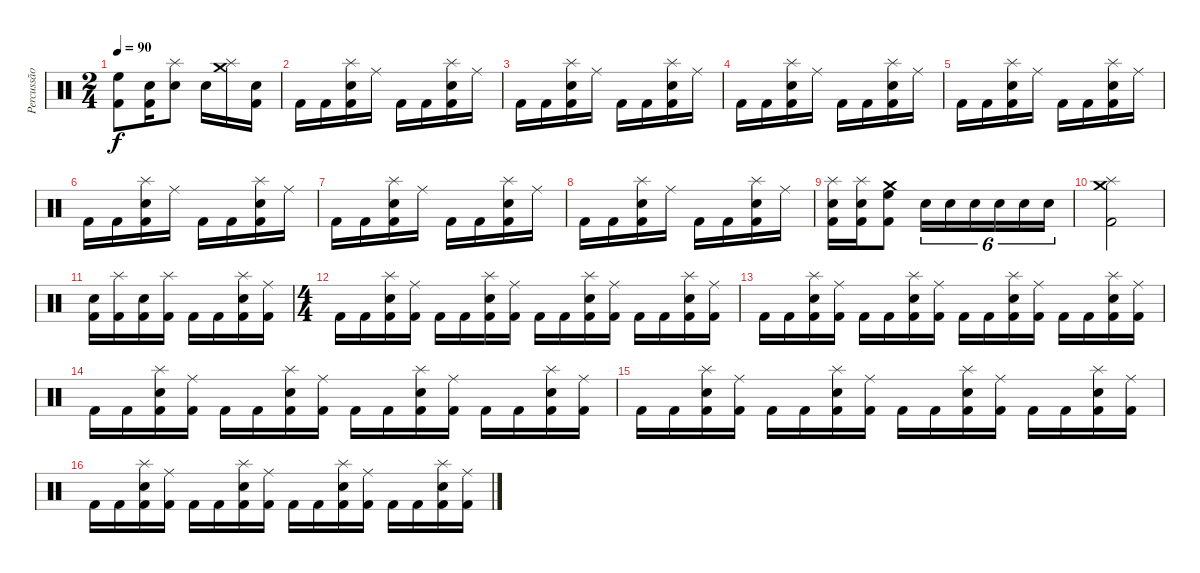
\track ("Percussão" "Percussão") {instrument percussion}
\staff {score}
\articulation defaults
\ts (2 4)
\tempo 90
\clef neutral
\ks c
("High Floor Tom (hit)" "Kick (hit) 2").8{dy f} ("Metronome (bell)" "Kick (hit) 2").16 ("Metronome (bell)" "Splash (hit)").8 "Metronome (bell)".16 ("Splash (hit)" "Crash medium (hit)").16 ("Metronome (bell)" "Kick (hit) 2").16 |
"Kick (hit) 2".16 "Kick (hit) 2".16 ("Splash (hit)" "Metronome (bell)" "Kick (hit) 2").16 "Ride (middle)".16 "Kick (hit) 2".16 "Kick (hit) 2".16 ("Splash (hit)" "Metronome (bell)" "Kick (hit) 2").16 "Ride (middle)".16 |
"Kick (hit) 2".16 "Kick (hit) 2".16 ("Splash (hit)" "Metronome (bell)" "Kick (hit) 2").16 "Ride (middle)".16 "Kick (hit) 2".16 "Kick (hit) 2".16 ("Splash (hit)" "Metronome (bell)" "Kick (hit) 2").16 "Ride (middle)".16 |
"Kick (hit) 2".16 "Kick (hit) 2".16 ("Splash (hit)" "Metronome (bell)" "Kick (hit) 2").16 "Ride (middle)".16 "Kick (hit) 2".16 "Kick (hit) 2".16 ("Splash (hit)" "Metronome (bell)" "Kick (hit) 2").16 "Ride (middle)".16 |
"Kick (hit) 2".16 "Kick (hit) 2".16 ("Splash (hit)" "Metronome (bell)" "Kick (hit) 2").16 "Ride (middle)".16 "Kick (hit) 2".16 "Kick (hit) 2".16 ("Splash (hit)" "Metronome (bell)" "Kick (hit) 2").16 "Ride (middle)".16 |
"Kick (hit) 2".16 "Kick (hit) 2".16 ("Splash (hit)" "Metronome (bell)" "Kick (hit) 2").16 "Ride (middle)".16 "Kick (hit) 2".16 "Kick (hit) 2".16 ("Splash (hit)" "Metronome (bell)" "Kick (hit) 2").16 "Ride (middle)".16 |
"Kick (hit) 2".16 "Kick (hit) 2".16 ("Splash (hit)" "Metronome (bell)" "Kick (hit) 2").16 "Ride (middle)".16 "Kick (hit) 2".16 "Kick (hit) 2".16 ("Splash (hit)" "Metronome (bell)" "Kick (hit) 2").16 "Ride (middle)".16 |
"Kick (hit) 2".16 "Kick (hit) 2".16 ("Splash (hit)" "Metronome (bell)" "Kick (hit) 2").16 "Ride (middle)".16 "Kick (hit) 2".16 "Kick (hit) 2".16 ("Splash (hit)" "Metronome (bell)" "Kick (hit) 2").16 "Ride (middle)".16 |
("Splash (hit)" "Metronome (bell)" "Kick (hit) 2").16 ("Splash (hit)" "Metronome (bell)" "Kick (hit) 2").16 ("Crash medium (hit)" "High Floor Tom (hit)" "Kick (hit) 2").8 "Metronome (bell)".16{tu (6 4)} "Metronome (bell)".16{tu (6 4)} "Metronome (bell)".16{tu (6 4)} "Metronome (bell)".16{tu (6 4)} "Metronome (bell)".16{tu (6 4)} "Metronome (bell)".16{tu (6 4)} |
("Crash medium (hit)" "Splash (hit)" "Kick (hit) 2").2 |
("Metronome (bell)" "Kick (hit) 2").16 ("Splash (hit)" "Kick (hit) 2").16 ("Metronome (bell)" "Kick (hit) 2").16 ("Splash (hit)" "Kick (hit) 2").16 "Kick (hit) 2".16 "Kick (hit) 2".16 ("Splash (hit)" "Metronome (bell)" "Kick (hit) 2").16 ("Ride (middle)" "Kick (hit) 2").16 |
\ts (4 4)
"Kick (hit) 2".16 "Kick (hit) 2".16 ("Splash (hit)" "Metronome (bell)" "Kick (hit) 2").16 ("Ride (middle)" "Kick (hit) 2").16 "Kick (hit) 2".16 "Kick (hit) 2".16 ("Splash (hit)" "Metronome (bell)" "Kick (hit) 2").16 ("Ride (middle)" "Kick (hit) 2").16 "Kick (hit) 2".16 "Kick (hit) 2".16 ("Splash (hit)" "Metronome (bell)" "Kick (hit) 2").16 ("Ride (middle)" "Kick (hit) 2").16 "Kick (hit) 2".16 "Kick (hit) 2".16 ("Splash (hit)" "Metronome (bell)" "Kick (hit) 2").16 ("Ride (middle)" "Kick (hit) 2").16 |
"Kick (hit) 2".16 "Kick (hit) 2".16 ("Splash (hit)" "Metronome (bell)" "Kick (hit) 2").16 ("Ride (middle)" "Kick (hit) 2").16 "Kick (hit) 2".16 "Kick (hit) 2".16 ("Splash (hit)" "Metronome (bell)" "Kick (hit) 2").16 ("Ride (middle)" "Kick (hit) 2").16 "Kick (hit) 2".16 "Kick (hit) 2".16 ("Splash (hit)" "Metronome (bell)" "Kick (hit) 2").16 ("Ride (middle)" "Kick (hit) 2").16 "Kick (hit) 2".16 "Kick (hit) 2".16 ("Splash (hit)" "Metronome (bell)" "Kick (hit) 2").16 ("Ride (middle)" "Kick (hit) 2").16 |
"Kick (hit) 2".16 "Kick (hit) 2".16 ("Splash (hit)" "Metronome (bell)" "Kick (hit) 2").16 ("Ride (middle)" "Kick (hit) 2").16 "Kick (hit) 2".16 "Kick (hit) 2".16 ("Splash (hit)" "Metronome (bell)" "Kick (hit) 2").16 ("Ride (middle)" "Kick (hit) 2").16 "Kick (hit) 2".16 "Kick (hit) 2".16 ("Splash (hit)" "Metronome (bell)" "Kick (hit) 2").16 ("Ride (middle)" "Kick (hit) 2").16 "Kick (hit) 2".16 "Kick (hit) 2".16 ("Splash (hit)" "Metronome (bell)" "Kick (hit) 2").16 ("Ride (middle)" "Kick (hit) 2").16 |
"Kick (hit) 2".16 "Kick (hit) 2".16 ("Splash (hit)" "Metronome (bell)" "Kick (hit) 2").16 ("Ride (middle)" "Kick (hit) 2").16 "Kick (hit) 2".16 "Kick (hit) 2".16 ("Splash (hit)" "Metronome (bell)" "Kick (hit) 2").16 ("Ride (middle)" "Kick (hit) 2").16 "Kick (hit) 2".16 "Kick (hit) 2".16 ("Splash (hit)" "Metronome (bell)" "Kick (hit) 2").16 ("Ride (middle)" "Kick (hit) 2").16 "Kick (hit) 2".16 "Kick (hit) 2".16 ("Splash (hit)" "Metronome (bell)" "Kick (hit) 2").16 ("Ride (middle)" "Kick (hit) 2").16 |
"Kick (hit) 2".16 "Kick (hit) 2".16 ("Splash (hit)" "Metronome (bell)" "Kick (hit) 2").16 ("Ride (middle)" "Kick (hit) 2").16 "Kick (hit) 2".16 "Kick (hit) 2".16 ("Splash (hit)" "Metronome (bell)" "Kick (hit) 2").16 ("Ride (middle)" "Kick (hit) 2").16 "Kick (hit) 2".16 "Kick (hit) 2".16 ("Splash (hit)" "Metronome (bell)" "Kick (hit) 2").16 ("Ride (middle)" "Kick (hit) 2").16 "Kick (hit) 2".16 "Kick (hit) 2".16 ("Splash (hit)" "Metronome (bell)" "Kick (hit) 2").16 ("Ride (middle)" "Kick (hit) 2").16
